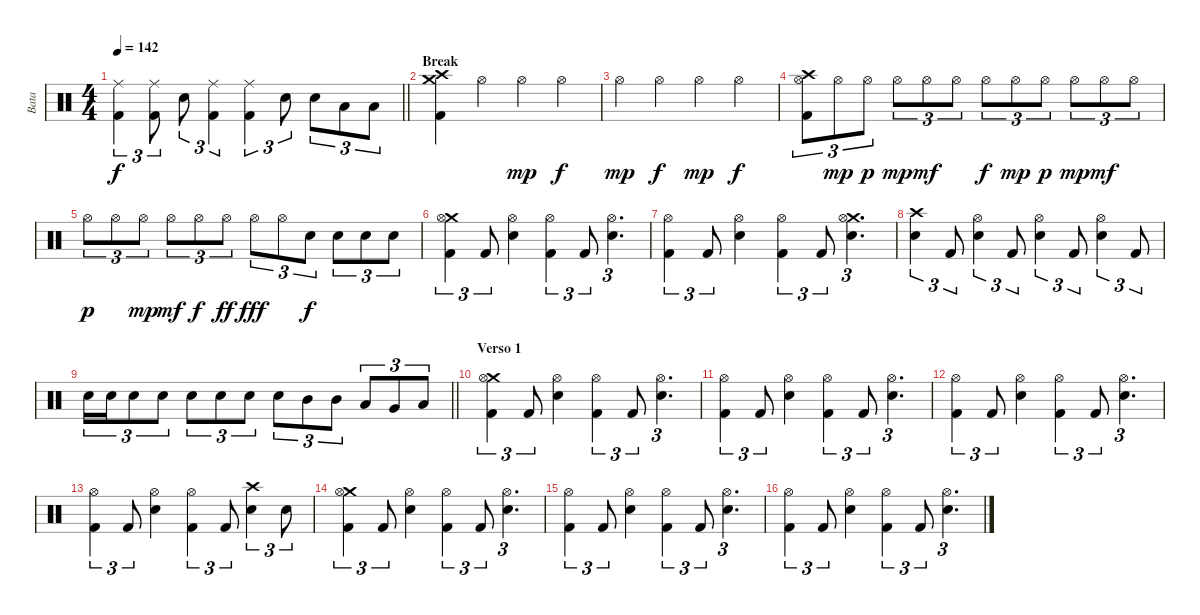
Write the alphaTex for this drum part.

\track ("Bata" "Bata") {instrument percussion}
\staff {score}
\articulation defaults
\ts (4 4)
\tempo 142
\clef neutral
\barLineRight lightlight
\ks c
("Ride (middle)" "Kick (hit) 2").4{tu (3 2) dy f} ("Ride (middle)" "Kick (hit) 2").8{tu (3 2)} "Electric Snare (hit)".8{tu (3 2)} ("Ride (middle)" "Kick (hit) 2").4{tu (3 2)} ("Ride (middle)" "Kick (hit) 2").4{tu (3 2)} "Electric Snare (hit)".8{tu (3 2)} "Electric Snare (hit)".8{tu (3 2)} "Low Tom (hit)".8{tu (3 2)} "Low Tom (hit)".8{tu (3 2)} |
\section ("" "Break")
("Crash medium (hit)" "Crash high (hit)" "Kick (hit) 2").4 "Hi-Hat (open)".4 "Hi-Hat (open)".4{dy mp} "Hi-Hat (open)".4{dy f} |
"Hi-Hat (open)".4{dy mp} "Hi-Hat (open)".4{dy f} "Hi-Hat (open)".4{dy mp} "Hi-Hat (open)".4{dy f} |
("Crash high (hit)" "Hi-Hat (open)" "Kick (hit) 2").8{tu (3 2)} "Hi-Hat (open)".8{tu (3 2) dy mp} "Hi-Hat (open)".8{tu (3 2) dy p} "Hi-Hat (open)".8{tu (3 2) dy mp} "Hi-Hat (open)".8{tu (3 2) dy mf} "Hi-Hat (open)".8{tu (3 2)} "Hi-Hat (open)".8{tu (3 2) dy f} "Hi-Hat (open)".8{tu (3 2) dy mp} "Hi-Hat (open)".8{tu (3 2) dy p} "Hi-Hat (open)".8{tu (3 2) dy mp} "Hi-Hat (open)".8{tu (3 2) dy mf} "Hi-Hat (open)".8{tu (3 2)} |
"Hi-Hat (open)".8{tu (3 2) dy p} "Hi-Hat (open)".8{tu (3 2)} "Hi-Hat (open)".8{tu (3 2) dy mp} "Hi-Hat (open)".8{tu (3 2) dy mf} "Hi-Hat (open)".8{tu (3 2) dy f} "Hi-Hat (open)".8{tu (3 2) dy ff} "Hi-Hat (open)".8{tu (3 2) dy fff} "Hi-Hat (open)".8{tu (3 2)} "Electric Snare (hit)".8{tu (3 2) dy f} "Electric Snare (hit)".8{tu (3 2)} "Electric Snare (hit)".8{tu (3 2)} "Electric Snare (hit)".8{tu (3 2)} |
("Crash medium (hit)" "Hi-Hat (open)" "Kick (hit) 2").4{tu (3 2)} "Kick (hit) 2".8{tu (3 2)} ("Hi-Hat (open)" "Electric Snare (hit)").4 ("Hi-Hat (open)" "Kick (hit) 2").4{tu (3 2)} "Kick (hit) 2".8{tu (3 2)} ("Hi-Hat (open)" "Electric Snare (hit)").4{d tu (3 2)} |
("Hi-Hat (open)" "Kick (hit) 2").4{tu (3 2)} "Kick (hit) 2".8{tu (3 2)} ("Hi-Hat (open)" "Electric Snare (hit)").4 ("Hi-Hat (open)" "Kick (hit) 2").4{tu (3 2)} "Kick (hit) 2".8{tu (3 2)} ("Crash medium (hit)" "Hi-Hat (open)" "Electric Snare (hit)").4{d tu (3 2)} |
("Crash high (hit)" "Electric Snare (hit)").4{tu (3 2)} "Kick (hit) 2".8{tu (3 2)} ("Hi-Hat (open)" "Electric Snare (hit)").4{tu (3 2)} "Kick (hit) 2".8{tu (3 2)} ("Hi-Hat (open)" "Electric Snare (hit)").4{tu (3 2)} "Kick (hit) 2".8{tu (3 2)} ("Hi-Hat (open)" "Electric Snare (hit)").4{tu (3 2)} "Kick (hit) 2".8{tu (3 2)} |
\barLineRight lightlight "Electric Snare (hit)".16{tu (3 2)} "Electric Snare (hit)".16{tu (3 2)} "Electric Snare (hit)".8{tu (3 2)} "Electric Snare (hit)".8{tu (3 2)} "Electric Snare (hit)".8{tu (3 2)} "Electric Snare (hit)".8{tu (3 2)} "Electric Snare (hit)".8{tu (3 2)} "Electric Snare (hit)".8{tu (3 2)} "Mid Tom (hit)".8{tu (3 2)} "Mid Tom (hit)".8{tu (3 2)} "Low Tom (hit)".8{tu (3 2)} "Very Low Tom (hit)".8{tu (3 2)} "Low Floor Tom (hit)".8{tu (3 2)}
|
\section ("" "Verso 1")
("Crash medium (hit)" "Hi-Hat (open)" "Kick (hit) 2").4{tu (3 2)} "Kick (hit) 2".8{tu (3 2)} ("Hi-Hat (open)" "Electric Snare (hit)").4 ("Hi-Hat (open)" "Kick (hit) 2").4{tu (3 2)} "Kick (hit) 2".8{tu (3 2)} ("Hi-Hat (open)" "Electric Snare (hit)").4{d tu (3 2)} |
("Hi-Hat (open)" "Kick (hit) 2").4{tu (3 2)} "Kick (hit) 2".8{tu (3 2)} ("Hi-Hat (open)" "Electric Snare (hit)").4 ("Hi-Hat (open)" "Kick (hit) 2").4{tu (3 2)} "Kick (hit) 2".8{tu (3 2)} ("Hi-Hat (open)" "Electric Snare (hit)").4{d tu (3 2)} |
("Hi-Hat (open)" "Kick (hit) 2").4{tu (3 2)} "Kick (hit) 2".8{tu (3 2)} ("Hi-Hat (open)" "Electric Snare (hit)").4 ("Hi-Hat (open)" "Kick (hit) 2").4{tu (3 2)} "Kick (hit) 2".8{tu (3 2)} ("Hi-Hat (open)" "Electric Snare (hit)").4{d tu (3 2)} |
("Hi-Hat (open)" "Kick (hit) 2").4{tu (3 2)} "Kick (hit) 2".8{tu (3 2)} ("Hi-Hat (open)" "Electric Snare (hit)").4 ("Hi-Hat (open)" "Kick (hit) 2").4{tu (3 2)} "Kick (hit) 2".8{tu (3 2)} ("Crash high (hit)" "Electric Snare (hit)").4{tu (3 2)} "Electric Snare (hit)".8{tu (3 2)} |
("Crash medium (hit)" "Hi-Hat (open)" "Kick (hit) 2").4{tu (3 2)} "Kick (hit) 2".8{tu (3 2)} ("Hi-Hat (open)" "Electric Snare (hit)").4 ("Hi-Hat (open)" "Kick (hit) 2").4{tu (3 2)} "Kick (hit) 2".8{tu (3 2)} ("Hi-Hat (open)" "Electric Snare (hit)").4{d tu (3 2)} |
("Hi-Hat (open)" "Kick (hit) 2").4{tu (3 2)} "Kick (hit) 2".8{tu (3 2)} ("Hi-Hat (open)" "Electric Snare (hit)").4 ("Hi-Hat (open)" "Kick (hit) 2").4{tu (3 2)} "Kick (hit) 2".8{tu (3 2)} ("Hi-Hat (open)" "Electric Snare (hit)").4{d tu (3 2)} |
("Hi-Hat (open)" "Kick (hit) 2").4{tu (3 2)} "Kick (hit) 2".8{tu (3 2)} ("Hi-Hat (open)" "Electric Snare (hit)").4 ("Hi-Hat (open)" "Kick (hit) 2").4{tu (3 2)} "Kick (hit) 2".8{tu (3 2)} ("Hi-Hat (open)" "Electric Snare (hit)").4{d tu (3 2)}
